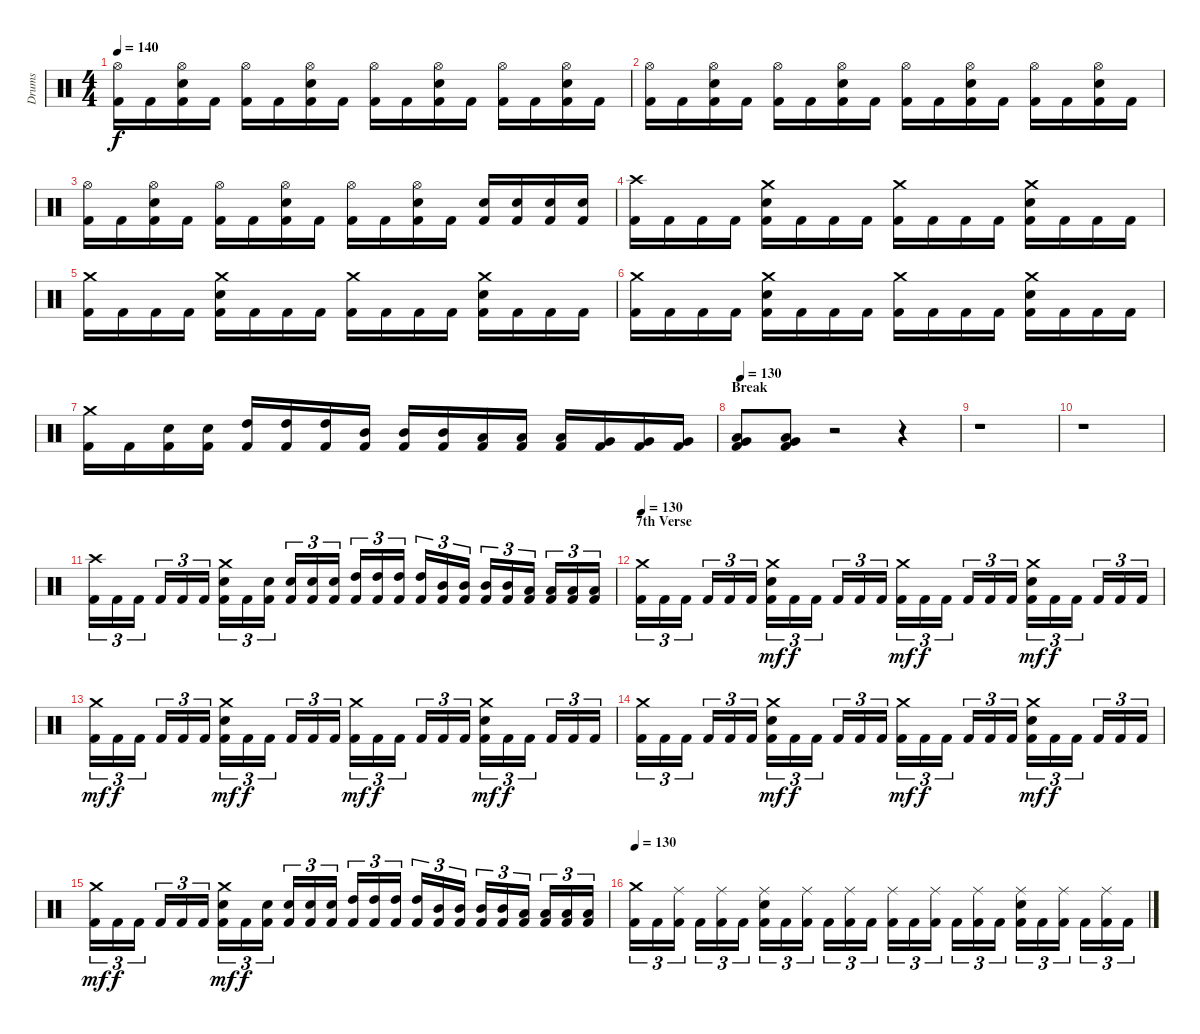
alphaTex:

\track ("Drums" "Drums") {instrument percussion}
\staff {score}
\articulation defaults
\ts (4 4)
\tempo 140
\clef neutral
\ks c
("Kick (hit) 2" "Hi-Hat (open)").16{dy f} "Kick (hit) 2".16 ("Kick (hit) 2" "Electric Snare (hit)" "Hi-Hat (open)").16 "Kick (hit) 2".16 ("Kick (hit) 2" "Hi-Hat (open)").16 "Kick (hit) 2".16 ("Kick (hit) 2" "Electric Snare (hit)" "Hi-Hat (open)").16 "Kick (hit) 2".16 ("Kick (hit) 2" "Hi-Hat (open)").16 "Kick (hit) 2".16 ("Kick (hit) 2" "Electric Snare (hit)" "Hi-Hat (open)").16 "Kick (hit) 2".16 ("Kick (hit) 2" "Hi-Hat (open)").16 "Kick (hit) 2".16 ("Kick (hit) 2" "Electric Snare (hit)" "Hi-Hat (open)").16 "Kick (hit) 2".16 |
("Kick (hit) 2" "Hi-Hat (open)").16 "Kick (hit) 2".16 ("Kick (hit) 2" "Electric Snare (hit)" "Hi-Hat (open)").16 "Kick (hit) 2".16 ("Kick (hit) 2" "Hi-Hat (open)").16 "Kick (hit) 2".16 ("Kick (hit) 2" "Electric Snare (hit)" "Hi-Hat (open)").16 "Kick (hit) 2".16 ("Kick (hit) 2" "Hi-Hat (open)").16 "Kick (hit) 2".16 ("Kick (hit) 2" "Electric Snare (hit)" "Hi-Hat (open)").16 "Kick (hit) 2".16 ("Kick (hit) 2" "Hi-Hat (open)").16 "Kick (hit) 2".16 ("Kick (hit) 2" "Electric Snare (hit)" "Hi-Hat (open)").16 "Kick (hit) 2".16 |
("Kick (hit) 2" "Hi-Hat (open)").16 "Kick (hit) 2".16 ("Kick (hit) 2" "Electric Snare (hit)" "Hi-Hat (open)").16 "Kick (hit) 2".16 ("Kick (hit) 2" "Hi-Hat (open)").16 "Kick (hit) 2".16 ("Kick (hit) 2" "Electric Snare (hit)" "Hi-Hat (open)").16 "Kick (hit) 2".16 ("Kick (hit) 2" "Hi-Hat (open)").16 "Kick (hit) 2".16 ("Kick (hit) 2" "Electric Snare (hit)" "Hi-Hat (open)").16 "Kick (hit) 2".16 ("Kick (hit) 2" "Electric Snare (hit)").16 ("Kick (hit) 2" "Electric Snare (hit)").16 ("Kick (hit) 2" "Electric Snare (hit)").16 ("Kick (hit) 2" "Electric Snare (hit)").16 |
("Kick (hit) 2" "Crash high (hit)").16 "Kick (hit) 2".16 "Kick (hit) 2".16 "Kick (hit) 2".16 ("Kick (hit) 2" "Electric Snare (hit)" "Crash medium (hit)").16 "Kick (hit) 2".16 "Kick (hit) 2".16 "Kick (hit) 2".16 ("Kick (hit) 2" "Crash medium (hit)").16 "Kick (hit) 2".16 "Kick (hit) 2".16 "Kick (hit) 2".16 ("Kick (hit) 2" "Electric Snare (hit)" "Crash medium (hit)").16 "Kick (hit) 2".16 "Kick (hit) 2".16 "Kick (hit) 2".16 |
("Kick (hit) 2" "Crash medium (hit)").16 "Kick (hit) 2".16 "Kick (hit) 2".16 "Kick (hit) 2".16 ("Kick (hit) 2" "Electric Snare (hit)" "Crash medium (hit)").16 "Kick (hit) 2".16 "Kick (hit) 2".16 "Kick (hit) 2".16 ("Kick (hit) 2" "Crash medium (hit)").16 "Kick (hit) 2".16 "Kick (hit) 2".16 "Kick (hit) 2".16 ("Kick (hit) 2" "Electric Snare (hit)" "Crash medium (hit)").16 "Kick (hit) 2".16 "Kick (hit) 2".16 "Kick (hit) 2".16 |
("Kick (hit) 2" "Crash medium (hit)").16 "Kick (hit) 2".16 "Kick (hit) 2".16 "Kick (hit) 2".16 ("Kick (hit) 2" "Electric Snare (hit)" "Crash medium (hit)").16 "Kick (hit) 2".16 "Kick (hit) 2".16 "Kick (hit) 2".16 ("Kick (hit) 2" "Crash medium (hit)").16 "Kick (hit) 2".16 "Kick (hit) 2".16 "Kick (hit) 2".16 ("Kick (hit) 2" "Electric Snare (hit)" "Crash medium (hit)").16 "Kick (hit) 2".16 "Kick (hit) 2".16 "Kick (hit) 2".16 |
("Kick (hit) 2" "Crash medium (hit)").16 "Kick (hit) 2".16 ("Kick (hit) 2" "Electric Snare (hit)").16 ("Kick (hit) 2" "Electric Snare (hit)").16 ("Kick (hit) 2" "High Tom (hit)").16 ("Kick (hit) 2" "High Tom (hit)").16 ("Kick (hit) 2" "High Tom (hit)").16 ("Kick (hit) 2" "Mid Tom (hit)").16 ("Kick (hit) 2" "Mid Tom (hit)").16 ("Kick (hit) 2" "Mid Tom (hit)").16 ("Kick (hit) 2" "Low Tom (hit)").16 ("Kick (hit) 2" "Low Tom (hit)").16 ("Kick (hit) 2" "Low Tom (hit)").16 ("Kick (hit) 2" "Very Low Tom (hit)").16 ("Kick (hit) 2" "Very Low Tom (hit)").16 ("Kick (hit) 2" "Very Low Tom (hit)").16 |
\section ("" "Break")
\tempo 130
("Kick (hit) 2" "Low Tom (hit)" "Very Low Tom (hit)").8 ("Kick (hit) 2" "Low Tom (hit)" "Very Low Tom (hit)").8 r.2 r.4 |
r.1 |
r.1 |
("Kick (hit) 2" "Crash high (hit)").16{tu (3 2)} "Kick (hit) 2".16{tu (3 2)} "Kick (hit) 2".16{tu (3 2)} "Kick (hit) 2".16{tu (3 2)} "Kick (hit) 2".16{tu (3 2)} "Kick (hit) 2".16{tu (3 2)} ("Kick (hit) 2" "Electric Snare (hit)" "Crash medium (hit)").16{tu (3 2)} "Kick (hit) 2".16{tu (3 2)} ("Kick (hit) 2" "Electric Snare (hit)").16{tu (3 2)} ("Kick (hit) 2" "Electric Snare (hit)").16{tu (3 2)} ("Kick (hit) 2" "Electric Snare (hit)").16{tu (3 2)} ("Kick (hit) 2" "Electric Snare (hit)").16{tu (3 2)} ("Kick (hit) 2" "High Tom (hit)").16{tu (3 2)} ("Kick (hit) 2" "High Tom (hit)").16{tu (3 2)} ("Kick (hit) 2" "High Tom (hit)").16{tu (3 2)} ("Kick (hit) 2" "High Tom (hit)").16{tu (3 2)} ("Kick (hit) 2" "Mid Tom (hit)").16{tu (3 2)} ("Kick (hit) 2" "Mid Tom (hit)").16{tu (3 2)} ("Kick (hit) 2" "Mid Tom (hit)").16{tu (3 2)} ("Kick (hit) 2" "Mid Tom (hit)").16{tu (3 2)} ("Kick (hit) 2" "Low Tom (hit)").16{tu (3 2)} ("Kick (hit) 2" "Low Tom (hit)").16{tu (3 2)} ("Kick (hit) 2" "Low Tom (hit)").16{tu (3 2)} ("Kick (hit) 2" "Low Tom (hit)").16{tu (3 2)} |
\section ("" "7th Verse")
\tempo 130
("Kick (hit) 2" "Crash medium (hit)").16{tu (3 2)} "Kick (hit) 2".16{tu (3 2)} "Kick (hit) 2".16{tu (3 2)} "Kick (hit) 2".16{tu (3 2)} "Kick (hit) 2".16{tu (3 2)} "Kick (hit) 2".16{tu (3 2)} ("Kick (hit) 2" "Electric Snare (hit)" "Crash medium (hit)").16{tu (3 2) dy mf} "Kick (hit) 2".16{tu (3 2) dy f} "Kick (hit) 2".16{tu (3 2)} "Kick (hit) 2".16{tu (3 2)} "Kick (hit) 2".16{tu (3 2)} "Kick (hit) 2".16{tu (3 2)} ("Kick (hit) 2" "Crash medium (hit)").16{tu (3 2) dy mf} "Kick (hit) 2".16{tu (3 2) dy f} "Kick (hit) 2".16{tu (3 2)} "Kick (hit) 2".16{tu (3 2)} "Kick (hit) 2".16{tu (3 2)} "Kick (hit) 2".16{tu (3 2)} ("Kick (hit) 2" "Electric Snare (hit)" "Crash medium (hit)").16{tu (3 2) dy mf} "Kick (hit) 2".16{tu (3 2) dy f} "Kick (hit) 2".16{tu (3 2)} "Kick (hit) 2".16{tu (3 2)} "Kick (hit) 2".16{tu (3 2)} "Kick (hit) 2".16{tu (3 2)} |
("Kick (hit) 2" "Crash medium (hit)").16{tu (3 2) dy mf} "Kick (hit) 2".16{tu (3 2) dy f} "Kick (hit) 2".16{tu (3 2)} "Kick (hit) 2".16{tu (3 2)} "Kick (hit) 2".16{tu (3 2)} "Kick (hit) 2".16{tu (3 2)} ("Kick (hit) 2" "Electric Snare (hit)" "Crash medium (hit)").16{tu (3 2) dy mf} "Kick (hit) 2".16{tu (3 2) dy f} "Kick (hit) 2".16{tu (3 2)} "Kick (hit) 2".16{tu (3 2)} "Kick (hit) 2".16{tu (3 2)} "Kick (hit) 2".16{tu (3 2)} ("Kick (hit) 2" "Crash medium (hit)").16{tu (3 2) dy mf} "Kick (hit) 2".16{tu (3 2) dy f} "Kick (hit) 2".16{tu (3 2)} "Kick (hit) 2".16{tu (3 2)} "Kick (hit) 2".16{tu (3 2)} "Kick (hit) 2".16{tu (3 2)} ("Kick (hit) 2" "Electric Snare (hit)" "Crash medium (hit)").16{tu (3 2) dy mf} "Kick (hit) 2".16{tu (3 2) dy f} "Kick (hit) 2".16{tu (3 2)} "Kick (hit) 2".16{tu (3 2)} "Kick (hit) 2".16{tu (3 2)} "Kick (hit) 2".16{tu (3 2)} |
("Kick (hit) 2" "Crash medium (hit)").16{tu (3 2)} "Kick (hit) 2".16{tu (3 2)} "Kick (hit) 2".16{tu (3 2)} "Kick (hit) 2".16{tu (3 2)} "Kick (hit) 2".16{tu (3 2)} "Kick (hit) 2".16{tu (3 2)} ("Kick (hit) 2" "Electric Snare (hit)" "Crash medium (hit)").16{tu (3 2) dy mf} "Kick (hit) 2".16{tu (3 2) dy f} "Kick (hit) 2".16{tu (3 2)} "Kick (hit) 2".16{tu (3 2)} "Kick (hit) 2".16{tu (3 2)} "Kick (hit) 2".16{tu (3 2)} ("Kick (hit) 2" "Crash medium (hit)").16{tu (3 2) dy mf} "Kick (hit) 2".16{tu (3 2) dy f} "Kick (hit) 2".16{tu (3 2)} "Kick (hit) 2".16{tu (3 2)} "Kick (hit) 2".16{tu (3 2)} "Kick (hit) 2".16{tu (3 2)} ("Kick (hit) 2" "Electric Snare (hit)" "Crash medium (hit)").16{tu (3 2) dy mf} "Kick (hit) 2".16{tu (3 2) dy f} "Kick (hit) 2".16{tu (3 2)} "Kick (hit) 2".16{tu (3 2)} "Kick (hit) 2".16{tu (3 2)} "Kick (hit) 2".16{tu (3 2)} |
("Kick (hit) 2" "Crash medium (hit)").16{tu (3 2) dy mf} "Kick (hit) 2".16{tu (3 2) dy f} "Kick (hit) 2".16{tu (3 2)} "Kick (hit) 2".16{tu (3 2)} "Kick (hit) 2".16{tu (3 2)} "Kick (hit) 2".16{tu (3 2)} ("Kick (hit) 2" "Electric Snare (hit)" "Crash medium (hit)").16{tu (3 2) dy mf} "Kick (hit) 2".16{tu (3 2) dy f} ("Kick (hit) 2" "Electric Snare (hit)").16{tu (3 2)} ("Kick (hit) 2" "Electric Snare (hit)").16{tu (3 2)} ("Kick (hit) 2" "Electric Snare (hit)").16{tu (3 2)} ("Kick (hit) 2" "Electric Snare (hit)").16{tu (3 2)} ("Kick (hit) 2" "High Tom (hit)").16{tu (3 2)} ("Kick (hit) 2" "High Tom (hit)").16{tu (3 2)} ("Kick (hit) 2" "High Tom (hit)").16{tu (3 2)} ("Kick (hit) 2" "High Tom (hit)").16{tu (3 2)} ("Kick (hit) 2" "Mid Tom (hit)").16{tu (3 2)} ("Kick (hit) 2" "Mid Tom (hit)").16{tu (3 2)} ("Kick (hit) 2" "Mid Tom (hit)").16{tu (3 2)} ("Kick (hit) 2" "Mid Tom (hit)").16{tu (3 2)} ("Kick (hit) 2" "Low Tom (hit)").16{tu (3 2)} ("Kick (hit) 2" "Low Tom (hit)").16{tu (3 2)} ("Kick (hit) 2" "Low Tom (hit)").16{tu (3 2)} ("Kick (hit) 2" "Low Tom (hit)").16{tu (3 2)} |
\tempo 130
("Kick (hit) 2" "Crash medium (hit)").16{tu (3 2)} "Kick (hit) 2".16{tu (3 2)} ("Kick (hit) 2" "Ride (middle)").16{tu (3 2)} "Kick (hit) 2".16{tu (3 2)} ("Kick (hit) 2" "Ride (middle)").16{tu (3 2)} "Kick (hit) 2".16{tu (3 2)} ("Kick (hit) 2" "Electric Snare (hit)" "Ride (middle)").16{tu (3 2)} "Kick (hit) 2".16{tu (3 2)} ("Kick (hit) 2" "Ride (middle)").16{tu (3 2)} "Kick (hit) 2".16{tu (3 2)} ("Kick (hit) 2" "Ride (middle)").16{tu (3 2)} "Kick (hit) 2".16{tu (3 2)} ("Kick (hit) 2" "Ride (middle)").16{tu (3 2)} "Kick (hit) 2".16{tu (3 2)} ("Kick (hit) 2" "Ride (middle)").16{tu (3 2)} "Kick (hit) 2".16{tu (3 2)} ("Kick (hit) 2" "Ride (middle)").16{tu (3 2)} "Kick (hit) 2".16{tu (3 2)} ("Kick (hit) 2" "Electric Snare (hit)" "Ride (middle)").16{tu (3 2)} "Kick (hit) 2".16{tu (3 2)} ("Kick (hit) 2" "Ride (middle)").16{tu (3 2)} "Kick (hit) 2".16{tu (3 2)} ("Kick (hit) 2" "Ride (middle)").16{tu (3 2)} "Kick (hit) 2".16{tu (3 2)}
